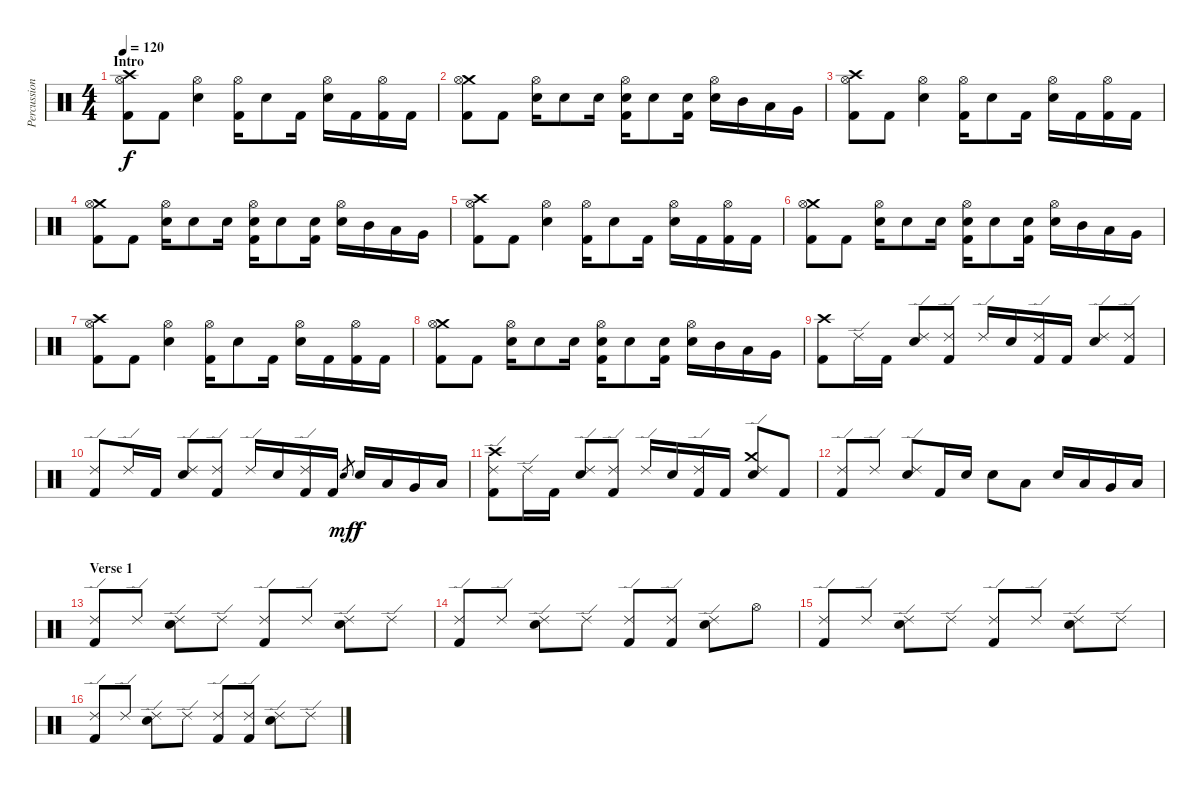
\track ("Percussion" "Percussion") {instrument percussion}
\staff {score}
\articulation defaults
\ts (4 4)
\section ("" "Intro")
\tempo 120
\clef neutral
\ks c
("Crash high (hit)" "Hi-Hat (open)" "Kick (hit) 2").8{dy f} "Kick (hit) 2".8 ("Hi-Hat (open)" "Electric Snare (hit)").4 ("Hi-Hat (open)" "Kick (hit) 2").16 "Electric Snare (hit)".8 "Kick (hit) 2".16 ("Hi-Hat (open)" "Electric Snare (hit)").16 "Kick (hit) 2".16 ("Hi-Hat (open)" "Kick (hit) 2").16 "Kick (hit) 2".16 |
("Crash medium (hit)" "Hi-Hat (open)" "Kick (hit) 2").8 "Kick (hit) 2".8 ("Hi-Hat (open)" "Electric Snare (hit)").16 "Electric Snare (hit)".8 "Electric Snare (hit)".16 ("Hi-Hat (open)" "Electric Snare (hit)" "Kick (hit) 2").16 "Electric Snare (hit)".8 ("Electric Snare (hit)" "Kick (hit) 2").16 ("Hi-Hat (open)" "Electric Snare (hit)").16 "Mid Tom (hit)".16 "Low Tom (hit)".16 "Very Low Tom (hit)".16 |
("Crash high (hit)" "Hi-Hat (open)" "Kick (hit) 2").8 "Kick (hit) 2".8 ("Hi-Hat (open)" "Electric Snare (hit)").4 ("Hi-Hat (open)" "Kick (hit) 2").16 "Electric Snare (hit)".8 "Kick (hit) 2".16 ("Hi-Hat (open)" "Electric Snare (hit)").16 "Kick (hit) 2".16 ("Hi-Hat (open)" "Kick (hit) 2").16 "Kick (hit) 2".16 |
("Crash medium (hit)" "Hi-Hat (open)" "Kick (hit) 2").8 "Kick (hit) 2".8 ("Hi-Hat (open)" "Electric Snare (hit)").16 "Electric Snare (hit)".8 "Electric Snare (hit)".16 ("Hi-Hat (open)" "Electric Snare (hit)" "Kick (hit) 2").16 "Electric Snare (hit)".8 ("Electric Snare (hit)" "Kick (hit) 2").16 ("Hi-Hat (open)" "Electric Snare (hit)").16 "Mid Tom (hit)".16 "Low Tom (hit)".16 "Very Low Tom (hit)".16 |
("Crash high (hit)" "Hi-Hat (open)" "Kick (hit) 2").8 "Kick (hit) 2".8 ("Hi-Hat (open)" "Electric Snare (hit)").4 ("Hi-Hat (open)" "Kick (hit) 2").16 "Electric Snare (hit)".8 "Kick (hit) 2".16 ("Hi-Hat (open)" "Electric Snare (hit)").16 "Kick (hit) 2".16 ("Hi-Hat (open)" "Kick (hit) 2").16 "Kick (hit) 2".16 |
("Crash medium (hit)" "Hi-Hat (open)" "Kick (hit) 2").8 "Kick (hit) 2".8 ("Hi-Hat (open)" "Electric Snare (hit)").16 "Electric Snare (hit)".8 "Electric Snare (hit)".16 ("Hi-Hat (open)" "Electric Snare (hit)" "Kick (hit) 2").16 "Electric Snare (hit)".8 ("Electric Snare (hit)" "Kick (hit) 2").16 ("Hi-Hat (open)" "Electric Snare (hit)").16 "Mid Tom (hit)".16 "Low Tom (hit)".16 "Very Low Tom (hit)".16 |
("Crash high (hit)" "Hi-Hat (open)" "Kick (hit) 2").8 "Kick (hit) 2".8 ("Hi-Hat (open)" "Electric Snare (hit)").4 ("Hi-Hat (open)" "Kick (hit) 2").16 "Electric Snare (hit)".8 "Kick (hit) 2".16 ("Hi-Hat (open)" "Electric Snare (hit)").16 "Kick (hit) 2".16 ("Hi-Hat (open)" "Kick (hit) 2").16 "Kick (hit) 2".16 |
("Crash medium (hit)" "Hi-Hat (open)" "Kick (hit) 2").8 "Kick (hit) 2".8 ("Hi-Hat (open)" "Electric Snare (hit)").16 "Electric Snare (hit)".8 "Electric Snare (hit)".16 ("Hi-Hat (open)" "Electric Snare (hit)" "Kick (hit) 2").16 "Electric Snare (hit)".8 ("Electric Snare (hit)" "Kick (hit) 2").16 ("Hi-Hat (open)" "Electric Snare (hit)").16 "Mid Tom (hit)".16 "Low Tom (hit)".16 "Very Low Tom (hit)".16 |
("Crash high (hit)" "Kick (hit) 2").8 "Ride (edge) 2".16 "Kick (hit) 2".16 ("Ride (edge) 2" "Electric Snare (hit)").8 ("Ride (edge) 2" "Kick (hit) 2").8 "Ride (edge) 2".16 "Electric Snare (hit)".16 ("Ride (edge) 2" "Kick (hit) 2").16 "Kick (hit) 2".16 ("Ride (edge) 2" "Electric Snare (hit)").8 ("Ride (edge) 2" "Kick (hit) 2").8 |
("Ride (edge) 2" "Kick (hit) 2").8 "Ride (edge) 2".16 "Kick (hit) 2".16 ("Ride (edge) 2" "Electric Snare (hit)").8 ("Ride (edge) 2" "Kick (hit) 2").8 "Ride (edge) 2".16 "Electric Snare (hit)".16 ("Ride (edge) 2" "Kick (hit) 2").16 "Kick (hit) 2".16 "Electric Snare (hit)".8{gr dy mf} "Electric Snare (hit)".16{dy f} "Low Tom (hit)".16 "Very Low Tom (hit)".16 "Low Floor Tom (hit)".16 |
("Crash high (hit)" "Ride (edge) 2" "Kick (hit) 2").8 "Ride (edge) 2".16 "Kick (hit) 2".16 ("Ride (edge) 2" "Electric Snare (hit)").8 ("Ride (edge) 2" "Kick (hit) 2").8 "Ride (edge) 2".16 "Electric Snare (hit)".16 ("Ride (edge) 2" "Kick (hit) 2").16 "Kick (hit) 2".16 ("Crash medium (hit)" "Ride (edge) 2" "Electric Snare (hit)").8 "Kick (hit) 2".8 |
("Ride (edge) 2" "Kick (hit) 2").8 "Ride (edge) 2".8 ("Ride (edge) 2" "Electric Snare (hit)").8 "Kick (hit) 2".16 "Electric Snare (hit)".16 "Electric Snare (hit)".8 "Low Tom (hit)".8 "Electric Snare (hit)".16 "Low Tom (hit)".16 "Very Low Tom (hit)".16 "Low Floor Tom (hit)".16 |
\section ("" "Verse 1")
("Ride (edge) 2" "Kick (hit) 2").8 "Ride (edge) 2".8 ("Ride (edge) 2" "Electric Snare (hit)").8 "Ride (edge) 2".8 ("Ride (edge) 2" "Kick (hit) 2").8 "Ride (edge) 2".8 ("Ride (edge) 2" "Electric Snare (hit)").8 "Ride (edge) 2".8 |
("Ride (edge) 2" "Kick (hit) 2").8 "Ride (edge) 2".8 ("Ride (edge) 2" "Electric Snare (hit)").8 "Ride (edge) 2".8 ("Ride (edge) 2" "Kick (hit) 2").8 ("Ride (edge) 2" "Kick (hit) 2").8 ("Ride (edge) 2" "Electric Snare (hit)").8 "Hi-Hat (open)".8 |
("Ride (edge) 2" "Kick (hit) 2").8 "Ride (edge) 2".8 ("Ride (edge) 2" "Electric Snare (hit)").8 "Ride (edge) 2".8 ("Ride (edge) 2" "Kick (hit) 2").8 "Ride (edge) 2".8 ("Ride (edge) 2" "Electric Snare (hit)").8 "Ride (edge) 2".8 |
("Ride (edge) 2" "Kick (hit) 2").8 "Ride (edge) 2".8 ("Ride (edge) 2" "Electric Snare (hit)").8 "Ride (edge) 2".8 ("Ride (edge) 2" "Kick (hit) 2").8 ("Ride (edge) 2" "Kick (hit) 2").8 ("Ride (edge) 2" "Electric Snare (hit)").8 "Ride (edge) 2".8
